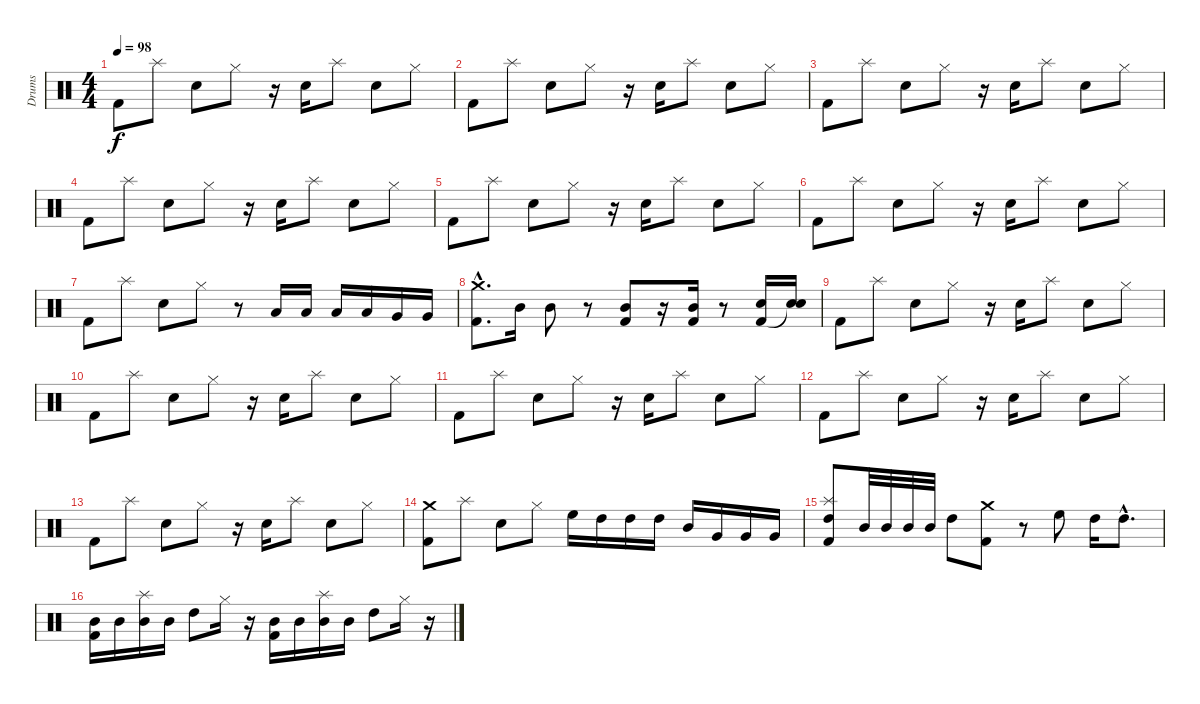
\track ("Drums" "Drums") {instrument percussion}
\staff {score}
\articulation defaults
\ts (4 4)
\tempo 98
\clef neutral
\ks c "Kick (hit) 2".8{dy f} "Splash (hit)".8 "Snare (hit) 2".8 "Hi-Hat (closed)".8
r.16 "Snare (hit) 2".16 "Splash (hit)".8 "Snare (hit) 2".8 "Hi-Hat (closed)".8 |
"Kick (hit) 2".8 "Splash (hit)".8 "Snare (hit) 2".8 "Hi-Hat (closed)".8 r.16 "Snare (hit) 2".16 "Splash (hit)".8 "Snare (hit) 2".8 "Hi-Hat (closed)".8 |
"Kick (hit) 2".8 "Splash (hit)".8 "Snare (hit) 2".8 "Hi-Hat (closed)".8 r.16 "Snare (hit) 2".16 "Splash (hit)".8 "Snare (hit) 2".8 "Hi-Hat (closed)".8 |
"Kick (hit) 2".8 "Splash (hit)".8 "Snare (hit) 2".8 "Hi-Hat (closed)".8 r.16 "Snare (hit) 2".16 "Splash (hit)".8 "Snare (hit) 2".8 "Hi-Hat (closed)".8 |
"Kick (hit) 2".8 "Splash (hit)".8 "Snare (hit) 2".8 "Hi-Hat (closed)".8 r.16 "Snare (hit) 2".16 "Splash (hit)".8 "Snare (hit) 2".8 "Hi-Hat (closed)".8 |
"Kick (hit) 2".8 "Splash (hit)".8 "Snare (hit) 2".8 "Hi-Hat (closed)".8 r.16 "Snare (hit) 2".16 "Splash (hit)".8 "Snare (hit) 2".8 "Hi-Hat (closed)".8 |
"Kick (hit) 2".8 "Splash (hit)".8 "Snare (hit) 2".8 "Hi-Hat (closed)".8 r.8 "Low Floor Tom (hit)".16 "Low Floor Tom (hit)".16 "Low Tom (hit)".16 "Low Tom (hit)".16 "Very Low Tom (hit)".16 "Very Low Tom (hit)".16 |
("Crash medium (hit)"{hac} "Kick (hit) 2"{hac}).8{d} "Mid Tom (hit)".16 "Mid Tom (hit)".8 r.8 ("Mid Tom (hit)" "Kick (hit) 2").8 r.16 ("Mid Tom (hit)" "Kick (hit) 2").16 r.8 ("Electric Snare (hit)" "Kick (hit) 2").16 ("Electric Snare (hit)" "Snare (hit)"{t}).16 |
"Kick (hit) 2".8 "Splash (hit)".8 "Snare (hit) 2".8 "Hi-Hat (closed)".8 r.16 "Snare (hit) 2".16 "Splash (hit)".8 "Snare (hit) 2".8 "Hi-Hat (closed)".8 |
"Kick (hit) 2".8 "Splash (hit)".8 "Snare (hit) 2".8 "Hi-Hat (closed)".8 r.16 "Snare (hit) 2".16 "Splash (hit)".8 "Snare (hit) 2".8 "Hi-Hat (closed)".8 |
"Kick (hit) 2".8 "Splash (hit)".8 "Snare (hit) 2".8 "Hi-Hat (closed)".8 r.16 "Snare (hit) 2".16 "Splash (hit)".8 "Snare (hit) 2".8 "Hi-Hat (closed)".8 |
"Kick (hit) 2".8 "Splash (hit)".8 "Snare (hit) 2".8 "Hi-Hat (closed)".8 r.16 "Snare (hit) 2".16 "Splash (hit)".8 "Snare (hit) 2".8 "Hi-Hat (closed)".8 |
"Kick (hit) 2".8 "Splash (hit)".8 "Snare (hit) 2".8 "Hi-Hat (closed)".8 r.16 "Snare (hit) 2".16 "Splash (hit)".8 "Snare (hit) 2".8 "Hi-Hat (closed)".8 |
("Crash medium (hit)" "Kick (hit) 2").8 "Splash (hit)".8 "Snare (hit) 2".8 "Hi-Hat (closed)".8 "High Floor Tom (hit)".16 "High Tom (hit)".16 "High Tom (hit)".16 "High Tom (hit)".16 "Mid Tom (hit)".16 "Very Low Tom (hit)".16 "Very Low Tom (hit)".16 "Very Low Tom (hit)".16 |
("Splash (hit)" "High Tom (hit)" "Kick (hit) 2").8 "Mid Tom (hit)".32 "Mid Tom (hit)".32 "Mid Tom (hit)".32 "Mid Tom (hit)".32 "High Tom (hit)".8 ("Crash medium (hit)" "Kick (hit) 2").8 r.8 "High Floor Tom (hit)".8 "High Tom (hit)".16 "High Tom (hit)"{hac}.8{d} |
("Mid Tom (hit)" "Kick (hit) 2").16 "Mid Tom (hit)".16 ("Splash (hit)" "Mid Tom (hit)").16 "Mid Tom (hit)".16 "High Tom (hit)".8 "Hi-Hat (closed)".16 r.16 ("Mid Tom (hit)" "Kick (hit) 2").16 "Mid Tom (hit)".16 ("Splash (hit)" "Mid Tom (hit)").16 "Mid Tom (hit)".16 "High Tom (hit)".8 "Hi-Hat (closed)".16 r.16
